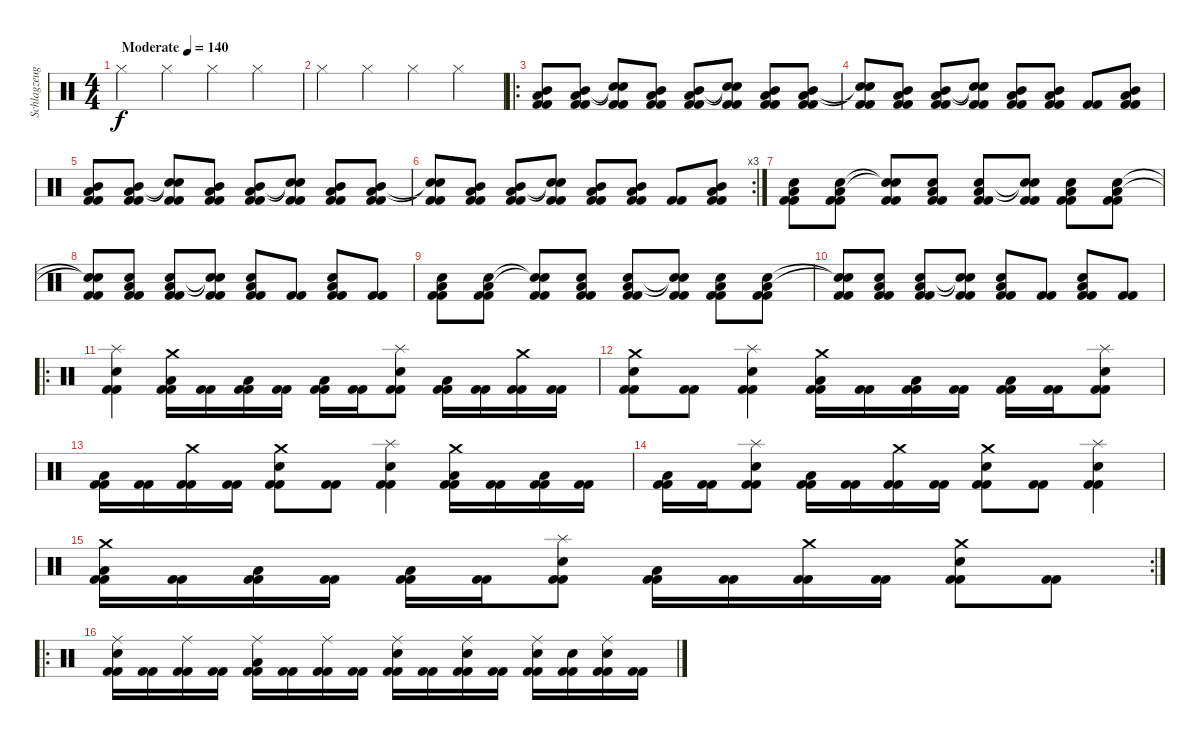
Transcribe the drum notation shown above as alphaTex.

\track ("Schlagzeug" "Schlagzeug") {instrument percussion}
\staff {score}
\articulation defaults
\ts (4 4)
\tempo (140 "Moderate")
\clef neutral
\ks c "Hi-Hat (closed)".4{dy f} "Hi-Hat (closed)".4 "Hi-Hat (closed)".4 "Hi-Hat (closed)".4
|
"Hi-Hat (closed)".4 "Hi-Hat (closed)".4 "Hi-Hat (closed)".4 "Hi-Hat (closed)".4 |
\ro
("Low Tom (hit)" "Mid Tom (hit)" "Kick (hit) 2" "Kick (hit) 2").8 ("Low Tom (hit)" "Mid Tom (hit)" "Kick (hit) 2" "Kick (hit) 2").8 ("Snare (hit)"{t} "Snare (hit)"{t} "Kick (hit) 2" "Kick (hit) 2").8 ("Low Tom (hit)" "Mid Tom (hit)" "Kick (hit) 2" "Kick (hit) 2").8 ("Low Tom (hit)" "Mid Tom (hit)" "Kick (hit) 2" "Kick (hit) 2").8 ("Snare (hit)"{t} "Snare (hit)"{t} "Kick (hit) 2" "Kick (hit) 2").8 ("Low Tom (hit)" "Mid Tom (hit)" "Kick (hit) 2" "Kick (hit) 2").8 ("Low Tom (hit)" "Mid Tom (hit)" "Kick (hit) 2" "Kick (hit) 2").8 |
("Snare (hit)"{t} "Snare (hit)"{t} "Kick (hit) 2" "Kick (hit) 2").8 ("Low Tom (hit)" "Mid Tom (hit)" "Kick (hit) 2" "Kick (hit) 2").8 ("Low Tom (hit)" "Mid Tom (hit)" "Kick (hit) 2" "Kick (hit) 2").8 ("Snare (hit)"{t} "Snare (hit)"{t} "Kick (hit) 2" "Kick (hit) 2").8 ("Low Tom (hit)" "Mid Tom (hit)" "Kick (hit) 2" "Kick (hit) 2").8 ("Low Tom (hit)" "Mid Tom (hit)" "Kick (hit) 2" "Kick (hit) 2").8 ("Kick (hit) 2" "Kick (hit) 2").8 ("Low Tom (hit)" "Mid Tom (hit)" "Kick (hit) 2" "Kick (hit) 2").8 |
("Low Tom (hit)" "Mid Tom (hit)" "Kick (hit) 2" "Kick (hit) 2").8 ("Low Tom (hit)" "Mid Tom (hit)" "Kick (hit) 2" "Kick (hit) 2").8 ("Snare (hit)"{t} "Snare (hit)"{t} "Kick (hit) 2" "Kick (hit) 2").8 ("Low Tom (hit)" "Mid Tom (hit)" "Kick (hit) 2" "Kick (hit) 2").8 ("Low Tom (hit)" "Mid Tom (hit)" "Kick (hit) 2" "Kick (hit) 2").8 ("Snare (hit)"{t} "Snare (hit)"{t} "Kick (hit) 2" "Kick (hit) 2").8 ("Low Tom (hit)" "Mid Tom (hit)" "Kick (hit) 2" "Kick (hit) 2").8 ("Low Tom (hit)" "Mid Tom (hit)" "Kick (hit) 2" "Kick (hit) 2").8 |
\rc 3
("Snare (hit)"{t} "Snare (hit)"{t} "Kick (hit) 2" "Kick (hit) 2").8 ("Low Tom (hit)" "Mid Tom (hit)" "Kick (hit) 2" "Kick (hit) 2").8 ("Low Tom (hit)" "Mid Tom (hit)" "Kick (hit) 2" "Kick (hit) 2").8 ("Snare (hit)"{t} "Snare (hit)"{t} "Kick (hit) 2" "Kick (hit) 2").8 ("Low Tom (hit)" "Mid Tom (hit)" "Kick (hit) 2" "Kick (hit) 2").8 ("Low Tom (hit)" "Mid Tom (hit)" "Kick (hit) 2" "Kick (hit) 2").8 ("Kick (hit) 2" "Kick (hit) 2").8 ("Low Tom (hit)" "Mid Tom (hit)" "Kick (hit) 2" "Kick (hit) 2").8 |
("Low Tom (hit)" "Snare (hit) 2" "Kick (hit) 2" "Kick (hit) 2").8 ("Low Tom (hit)" "Snare (hit) 2" "Kick (hit) 2" "Kick (hit) 2").8 ("Snare (hit)"{t} "Snare (hit)"{t} "Kick (hit) 2" "Kick (hit) 2").8 ("Low Tom (hit)" "Snare (hit) 2" "Kick (hit) 2" "Kick (hit) 2").8 ("Low Tom (hit)" "Snare (hit) 2" "Kick (hit) 2" "Kick (hit) 2").8 ("Snare (hit)"{t} "Snare (hit)"{t} "Kick (hit) 2" "Kick (hit) 2").8 ("Low Tom (hit)" "Snare (hit) 2" "Kick (hit) 2" "Kick (hit) 2").8 ("Low Tom (hit)" "Snare (hit) 2" "Kick (hit) 2" "Kick (hit) 2").8 |
("Snare (hit)"{t} "Snare (hit)"{t} "Kick (hit) 2" "Kick (hit) 2").8 ("Low Tom (hit)" "Snare (hit) 2" "Kick (hit) 2" "Kick (hit) 2").8 ("Low Tom (hit)" "Snare (hit) 2" "Kick (hit) 2" "Kick (hit) 2").8 ("Snare (hit)"{t} "Snare (hit)"{t} "Kick (hit) 2" "Kick (hit) 2").8 ("Low Tom (hit)" "Snare (hit) 2" "Kick (hit) 2" "Kick (hit) 2").8 ("Kick (hit) 2" "Kick (hit) 2").8 ("Low Tom (hit)" "Snare (hit) 2" "Kick (hit) 2" "Kick (hit) 2").8 ("Kick (hit) 2" "Kick (hit) 2").8 |
("Low Tom (hit)" "Snare (hit) 2" "Kick (hit) 2" "Kick (hit) 2").8 ("Low Tom (hit)" "Snare (hit) 2" "Kick (hit) 2" "Kick (hit) 2").8 ("Snare (hit)"{t} "Snare (hit)"{t} "Kick (hit) 2" "Kick (hit) 2").8 ("Low Tom (hit)" "Snare (hit) 2" "Kick (hit) 2" "Kick (hit) 2").8 ("Low Tom (hit)" "Snare (hit) 2" "Kick (hit) 2" "Kick (hit) 2").8 ("Snare (hit)"{t} "Snare (hit)"{t} "Kick (hit) 2" "Kick (hit) 2").8 ("Low Tom (hit)" "Snare (hit) 2" "Kick (hit) 2" "Kick (hit) 2").8 ("Low Tom (hit)" "Snare (hit) 2" "Kick (hit) 2" "Kick (hit) 2").8 |
("Snare (hit)"{t} "Snare (hit)"{t} "Kick (hit) 2" "Kick (hit) 2").8 ("Low Tom (hit)" "Snare (hit) 2" "Kick (hit) 2" "Kick (hit) 2").8 ("Low Tom (hit)" "Snare (hit) 2" "Kick (hit) 2" "Kick (hit) 2").8 ("Snare (hit)"{t} "Snare (hit)"{t} "Kick (hit) 2" "Kick (hit) 2").8 ("Low Tom (hit)" "Snare (hit) 2" "Kick (hit) 2" "Kick (hit) 2").8 ("Kick (hit) 2" "Kick (hit) 2").8 ("Low Tom (hit)" "Snare (hit) 2" "Kick (hit) 2" "Kick (hit) 2").8 ("Kick (hit) 2" "Kick (hit) 2").8 |
\ro
("Splash (hit)" "Snare (hit) 2" "Kick (hit) 2" "Kick (hit) 2").4 ("Crash medium (hit)" "Low Tom (hit)" "Kick (hit) 2" "Kick (hit) 2").16 ("Kick (hit) 2" "Kick (hit) 2").16 ("Low Tom (hit)" "Kick (hit) 2" "Kick (hit) 2").16 ("Kick (hit) 2" "Kick (hit) 2").16 ("Low Tom (hit)" "Kick (hit) 2" "Kick (hit) 2").16 ("Kick (hit) 2" "Kick (hit) 2").16 ("Splash (hit)" "Snare (hit) 2" "Kick (hit) 2" "Kick (hit) 2").8 ("Low Tom (hit)" "Kick (hit) 2" "Kick (hit) 2").16 ("Kick (hit) 2" "Kick (hit) 2").16 ("Crash medium (hit)" "Kick (hit) 2" "Kick (hit) 2").16 ("Kick (hit) 2" "Kick (hit) 2").16 |
("Crash medium (hit)" "Snare (hit) 2" "Kick (hit) 2" "Kick (hit) 2").8 ("Kick (hit) 2" "Kick (hit) 2").8 ("Splash (hit)" "Snare (hit) 2" "Kick (hit) 2" "Kick (hit) 2").4 ("Crash medium (hit)" "Low Tom (hit)" "Kick (hit) 2" "Kick (hit) 2").16 ("Kick (hit) 2" "Kick (hit) 2").16 ("Low Tom (hit)" "Kick (hit) 2" "Kick (hit) 2").16 ("Kick (hit) 2" "Kick (hit) 2").16 ("Low Tom (hit)" "Kick (hit) 2" "Kick (hit) 2").16 ("Kick (hit) 2" "Kick (hit) 2").16 ("Splash (hit)" "Snare (hit) 2" "Kick (hit) 2" "Kick (hit) 2").8 |
("Low Tom (hit)" "Kick (hit) 2" "Kick (hit) 2").16 ("Kick (hit) 2" "Kick (hit) 2").16 ("Crash medium (hit)" "Kick (hit) 2" "Kick (hit) 2").16 ("Kick (hit) 2" "Kick (hit) 2").16 ("Crash medium (hit)" "Snare (hit) 2" "Kick (hit) 2" "Kick (hit) 2").8 ("Kick (hit) 2" "Kick (hit) 2").8 ("Splash (hit)" "Snare (hit) 2" "Kick (hit) 2" "Kick (hit) 2").4 ("Crash medium (hit)" "Low Tom (hit)" "Kick (hit) 2" "Kick (hit) 2").16 ("Kick (hit) 2" "Kick (hit) 2").16 ("Low Tom (hit)" "Kick (hit) 2" "Kick (hit) 2").16 ("Kick (hit) 2" "Kick (hit) 2").16 |
("Low Tom (hit)" "Kick (hit) 2" "Kick (hit) 2").16 ("Kick (hit) 2" "Kick (hit) 2").16 ("Splash (hit)" "Snare (hit) 2" "Kick (hit) 2" "Kick (hit) 2").8 ("Low Tom (hit)" "Kick (hit) 2" "Kick (hit) 2").16 ("Kick (hit) 2" "Kick (hit) 2").16 ("Crash medium (hit)" "Kick (hit) 2" "Kick (hit) 2").16 ("Kick (hit) 2" "Kick (hit) 2").16 ("Crash medium (hit)" "Snare (hit) 2" "Kick (hit) 2" "Kick (hit) 2").8 ("Kick (hit) 2" "Kick (hit) 2").8 ("Splash (hit)" "Snare (hit) 2" "Kick (hit) 2" "Kick (hit) 2").4 |
\rc 2
("Crash medium (hit)" "Low Tom (hit)" "Kick (hit) 2" "Kick (hit) 2").16 ("Kick (hit) 2" "Kick (hit) 2").16 ("Low Tom (hit)" "Kick (hit) 2" "Kick (hit) 2").16 ("Kick (hit) 2" "Kick (hit) 2").16 ("Low Tom (hit)" "Kick (hit) 2" "Kick (hit) 2").16 ("Kick (hit) 2" "Kick (hit) 2").16 ("Splash (hit)" "Snare (hit) 2" "Kick (hit) 2" "Kick (hit) 2").8 ("Low Tom (hit)" "Kick (hit) 2" "Kick (hit) 2").16 ("Kick (hit) 2" "Kick (hit) 2").16 ("Crash medium (hit)" "Kick (hit) 2" "Kick (hit) 2").16 ("Kick (hit) 2" "Kick (hit) 2").16 ("Crash medium (hit)" "Snare (hit) 2" "Kick (hit) 2" "Kick (hit) 2").8 ("Kick (hit) 2" "Kick (hit) 2").8 |
\ro
("Ride (middle)" "Snare (hit) 2" "Kick (hit) 2" "Kick (hit) 2").16 ("Kick (hit) 2" "Kick (hit) 2").16 ("Ride (middle)" "Kick (hit) 2" "Kick (hit) 2").16 ("Kick (hit) 2" "Kick (hit) 2").16 ("Ride (middle)" "Low Tom (hit)" "Kick (hit) 2" "Kick (hit) 2").16 ("Kick (hit) 2" "Kick (hit) 2").16 ("Ride (middle)" "Kick (hit) 2" "Kick (hit) 2").16 ("Kick (hit) 2" "Kick (hit) 2").16 ("Ride (middle)" "Snare (hit) 2" "Kick (hit) 2" "Kick (hit) 2").16 ("Kick (hit) 2" "Kick (hit) 2").16 ("Ride (middle)" "Snare (hit) 2" "Kick (hit) 2" "Kick (hit) 2").16 ("Kick (hit) 2" "Kick (hit) 2").16 ("Ride (middle)" "Snare (hit) 2" "Kick (hit) 2" "Kick (hit) 2").16 ("Snare (hit) 2" "Kick (hit) 2" "Kick (hit) 2").16 ("Ride (middle)" "Snare (hit) 2" "Kick (hit) 2" "Kick (hit) 2").16 ("Kick (hit) 2" "Kick (hit) 2").16
